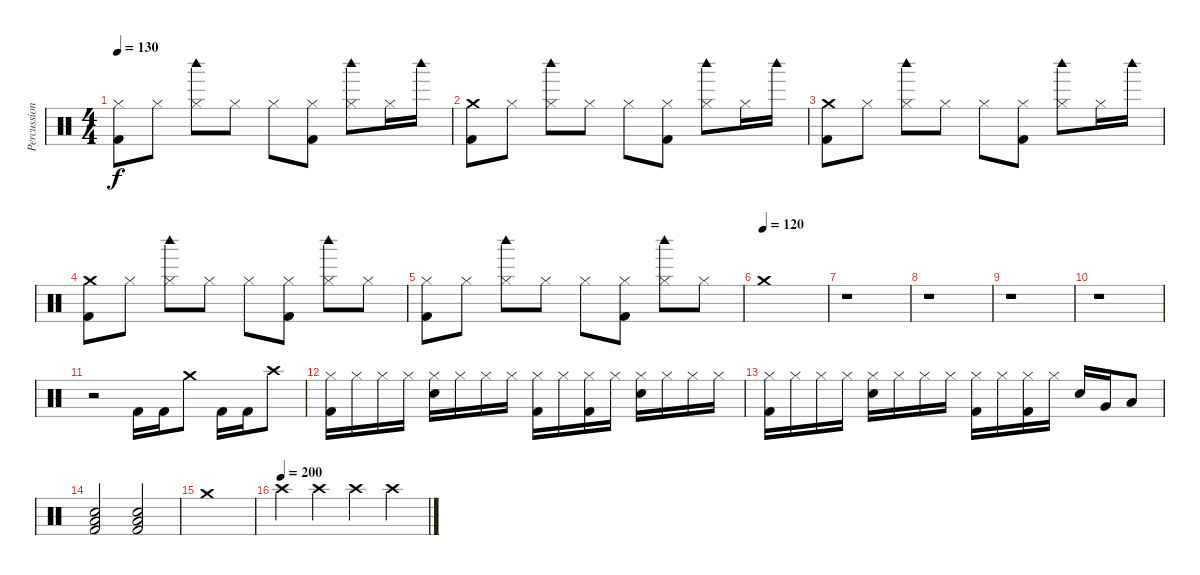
\track ("Percussion" "Percussion") {instrument percussion}
\staff {score}
\articulation defaults
\ts (4 4)
\tempo 130
\clef neutral
\ks c
("Hi-Hat (closed)" "Kick (hit) 2").8{dy f} "Hi-Hat (closed)".8 ("Hi-Hat (closed)" "Woodblock high (hit)").8 "Hi-Hat (closed)".8 "Hi-Hat (closed)".8 ("Hi-Hat (closed)" "Kick (hit) 2").8 ("Hi-Hat (closed)" "Woodblock high (hit)").8 "Hi-Hat (closed)".16 "Woodblock high (hit)".16 |
("Crash medium (hit)" "Kick (hit) 2").8 "Hi-Hat (closed)".8 ("Hi-Hat (closed)" "Woodblock high (hit)").8 "Hi-Hat (closed)".8 "Hi-Hat (closed)".8 ("Hi-Hat (closed)" "Kick (hit) 2").8 ("Hi-Hat (closed)" "Woodblock high (hit)").8 "Hi-Hat (closed)".16 "Woodblock high (hit)".16 |
("Crash medium (hit)" "Kick (hit) 2").8 "Hi-Hat (closed)".8 ("Hi-Hat (closed)" "Woodblock high (hit)").8 "Hi-Hat (closed)".8 "Hi-Hat (closed)".8 ("Hi-Hat (closed)" "Kick (hit) 2").8 ("Hi-Hat (closed)" "Woodblock high (hit)").8 "Hi-Hat (closed)".16 "Woodblock high (hit)".16 |
("Crash medium (hit)" "Kick (hit) 2").8 "Hi-Hat (closed)".8 ("Hi-Hat (closed)" "Woodblock high (hit)").8 "Hi-Hat (closed)".8 "Hi-Hat (closed)".8 ("Hi-Hat (closed)" "Kick (hit) 2").8 ("Hi-Hat (closed)" "Woodblock high (hit)").8 "Hi-Hat (closed)".8 |
("Hi-Hat (closed)" "Kick (hit) 2").8 "Hi-Hat (closed)".8 ("Hi-Hat (closed)" "Woodblock high (hit)").8 "Hi-Hat (closed)".8 "Hi-Hat (closed)".8 ("Hi-Hat (closed)" "Kick (hit) 2").8 ("Hi-Hat (closed)" "Woodblock high (hit)").8 "Hi-Hat (closed)".8 |
\tempo (120)
"Crash medium (hit)".1 |
r.1 |
r.1 |
r.1 |
r.1 |
r.2 "Kick (hit) 2".16 "Kick (hit) 2".16 "Crash medium (hit)".8 "Kick (hit) 2".16 "Kick (hit) 2".16 "Crash high (hit)".8 |
("Hi-Hat (closed)" "Kick (hit) 2").16 "Hi-Hat (closed)".16 "Hi-Hat (closed)".16 "Hi-Hat (closed)".16 ("Hi-Hat (closed)" "Electric Snare (hit)").16 "Hi-Hat (closed)".16 "Hi-Hat (closed)".16 "Hi-Hat (closed)".16 ("Hi-Hat (closed)" "Kick (hit) 2").16 "Hi-Hat (closed)".16 ("Hi-Hat (closed)" "Kick (hit) 2").16 "Hi-Hat (closed)".16 ("Hi-Hat (closed)" "Electric Snare (hit)").16 "Hi-Hat (closed)".16 "Hi-Hat (closed)".16 "Hi-Hat (closed)".16 |
("Hi-Hat (closed)" "Kick (hit) 2").16 "Hi-Hat (closed)".16 "Hi-Hat (closed)".16 "Hi-Hat (closed)".16 ("Hi-Hat (closed)" "Electric Snare (hit)").16 "Hi-Hat (closed)".16 "Hi-Hat (closed)".16 "Hi-Hat (closed)".16 ("Hi-Hat (closed)" "Kick (hit) 2").16 "Hi-Hat (closed)".16 ("Hi-Hat (closed)" "Kick (hit) 2").16 "Hi-Hat (closed)".16 "Electric Snare (hit)".16 "Very Low Tom (hit)".16 "Low Floor Tom (hit)".8 |
("Low Floor Tom (hit)" "Electric Snare (hit)" "Kick (hit) 2").2 ("Low Floor Tom (hit)" "Electric Snare (hit)" "Kick (hit) 2").2 |
"Crash medium (hit)".1 |
\tempo (200)
"Crash high (hit)".4 "Crash high (hit)".4 "Crash high (hit)".4 "Crash high (hit)".4
